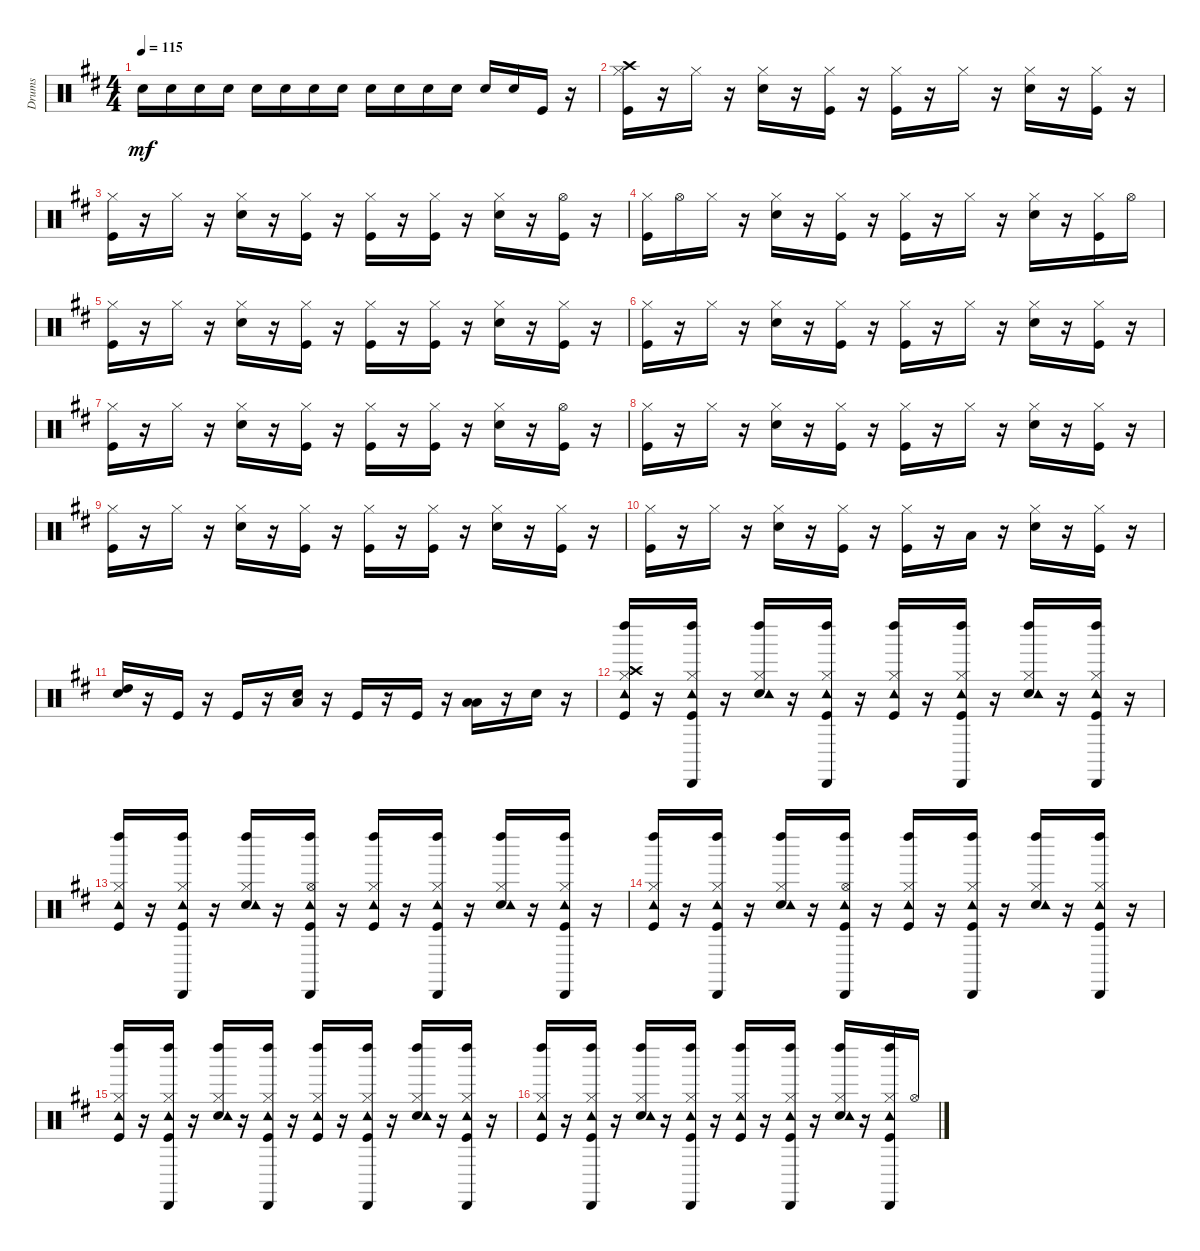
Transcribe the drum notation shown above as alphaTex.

\track ("Drums" "Drums") {instrument percussion}
\staff {score}
\articulation defaults
\ts (4 4)
\tempo 115
\clef neutral
\ks bminor "Snare (hit) 2".16{dy mf} "Snare (hit) 2".16 "Snare (hit) 2".16 "Snare (hit) 2".16 "Snare (hit) 2".16 "Snare (hit) 2".16 "Snare (hit) 2".16 "Snare (hit) 2".16 "Snare (hit) 2".16 "Snare (hit) 2".16 "Snare (hit) 2".16 "Snare (hit) 2".16 "Snare (hit) 2".16 "Snare (hit) 2".16 "Kick (hit)".16
r.16 |
("Kick (hit)" "Hi-Hat (closed)" "Crash high (hit)").16 r.16 "Hi-Hat (closed)".16 r.16 ("Snare (hit) 2" "Hi-Hat (closed)").16 r.16 ("Kick (hit)" "Hi-Hat (closed)").16 r.16 ("Kick (hit)" "Hi-Hat (closed)").16 r.16 "Hi-Hat (closed)".16 r.16 ("Snare (hit) 2" "Hi-Hat (closed)").16 r.16 ("Kick (hit)" "Hi-Hat (closed)").16 r.16 |
("Kick (hit)" "Hi-Hat (closed)").16 r.16 "Hi-Hat (closed)".16 r.16 ("Snare (hit) 2" "Hi-Hat (closed)").16 r.16 ("Kick (hit)" "Hi-Hat (closed)").16 r.16 ("Kick (hit)" "Hi-Hat (closed)").16 r.16 ("Kick (hit)" "Hi-Hat (closed)").16 r.16 ("Snare (hit) 2" "Hi-Hat (closed)").16 r.16 ("Kick (hit)" "Hi-Hat (open)").16 r.16 |
("Kick (hit)" "Hi-Hat (closed)").16 "Hi-Hat (open)".16 "Hi-Hat (closed)".16 r.16 ("Snare (hit) 2" "Hi-Hat (closed)").16 r.16 ("Kick (hit)" "Hi-Hat (closed)").16 r.16 ("Kick (hit)" "Hi-Hat (closed)").16 r.16 "Hi-Hat (closed)".16 r.16 ("Snare (hit) 2" "Hi-Hat (closed)").16 r.16 ("Kick (hit)" "Hi-Hat (closed)").16 "Hi-Hat (open)".16 |
("Kick (hit)" "Hi-Hat (closed)").16 r.16 "Hi-Hat (closed)".16 r.16 ("Snare (hit) 2" "Hi-Hat (closed)").16 r.16 ("Kick (hit)" "Hi-Hat (closed)").16 r.16 ("Kick (hit)" "Hi-Hat (closed)").16 r.16 ("Kick (hit)" "Hi-Hat (closed)").16 r.16 ("Snare (hit) 2" "Hi-Hat (closed)").16 r.16 ("Kick (hit)" "Hi-Hat (closed)").16 r.16 |
("Kick (hit)" "Hi-Hat (closed)").16 r.16 "Hi-Hat (closed)".16 r.16 ("Snare (hit) 2" "Hi-Hat (closed)").16 r.16 ("Kick (hit)" "Hi-Hat (closed)").16 r.16 ("Kick (hit)" "Hi-Hat (closed)").16 r.16 "Hi-Hat (closed)".16 r.16 ("Snare (hit) 2" "Hi-Hat (closed)").16 r.16 ("Kick (hit)" "Hi-Hat (closed)").16 r.16 |
("Kick (hit)" "Hi-Hat (closed)").16 r.16 "Hi-Hat (closed)".16 r.16 ("Snare (hit) 2" "Hi-Hat (closed)").16 r.16 ("Kick (hit)" "Hi-Hat (closed)").16 r.16 ("Kick (hit)" "Hi-Hat (closed)").16 r.16 ("Kick (hit)" "Hi-Hat (closed)").16 r.16 ("Snare (hit) 2" "Hi-Hat (closed)").16 r.16 ("Kick (hit)" "Hi-Hat (open)").16 r.16 |
("Kick (hit)" "Hi-Hat (closed)").16 r.16 "Hi-Hat (closed)".16 r.16 ("Snare (hit) 2" "Hi-Hat (closed)").16 r.16 ("Kick (hit)" "Hi-Hat (closed)").16 r.16 ("Kick (hit)" "Hi-Hat (closed)").16 r.16 "Hi-Hat (closed)".16 r.16 ("Snare (hit) 2" "Hi-Hat (closed)").16 r.16 ("Kick (hit)" "Hi-Hat (closed)").16 r.16 |
("Kick (hit)" "Hi-Hat (closed)").16 r.16 "Hi-Hat (closed)".16 r.16 ("Snare (hit) 2" "Hi-Hat (closed)").16 r.16 ("Kick (hit)" "Hi-Hat (closed)").16 r.16 ("Kick (hit)" "Hi-Hat (closed)").16 r.16 ("Kick (hit)" "Hi-Hat (closed)").16 r.16 ("Snare (hit) 2" "Hi-Hat (closed)").16 r.16 ("Kick (hit)" "Hi-Hat (closed)").16 r.16 |
("Kick (hit)" "Hi-Hat (closed)").16 r.16 "Hi-Hat (closed)".16 r.16 ("Snare (hit) 2" "Hi-Hat (closed)").16 r.16 ("Kick (hit)" "Hi-Hat (closed)").16 r.16 ("Kick (hit)" "Hi-Hat (closed)").16 r.16 "Low Floor Tom (hit)".16 r.16 ("Snare (hit) 2" "Hi-Hat (closed)").16 r.16 ("Kick (hit)" "Hi-Hat (closed)").16 r.16 |
("Snare (hit) 2" "High Tom (hit)").16 r.16 "Kick (hit)".16 r.16 "Kick (hit)".16 r.16 ("Snare (hit) 2" "Low Tom (hit)").16 r.16 "Kick (hit)".16 r.16 "Kick (hit)".16 r.16 ("Low Floor Tom (hit)" "Low Tom (hit)").16 r.16 "Snare (hit) 2".16 r.16 |
("Kick (hit)" "Hi-Hat (closed)" "Crash high (hit)" "Tambourine (hit)" "Left Maraca (hit)").16 r.16 ("Kick (hit)" "Hi-Hat (closed)" "Tambourine (hit)" "Cabasa (hit)" "Left Maraca (hit)").16 r.16 ("Snare (hit) 2" "Hi-Hat (closed)" "Tambourine (hit)" "Left Maraca (hit)").16 r.16 ("Kick (hit)" "Hi-Hat (closed)" "Tambourine (hit)" "Cabasa (hit)" "Left Maraca (hit)").16 r.16 ("Kick (hit)" "Hi-Hat (closed)" "Tambourine (hit)" "Left Maraca (hit)").16 r.16 ("Kick (hit)" "Hi-Hat (closed)" "Tambourine (hit)" "Cabasa (hit)" "Left Maraca (hit)").16 r.16 ("Snare (hit) 2" "Hi-Hat (closed)" "Tambourine (hit)" "Left Maraca (hit)").16 r.16 ("Kick (hit)" "Hi-Hat (closed)" "Tambourine (hit)" "Cabasa (hit)" "Left Maraca (hit)").16 r.16 |
("Kick (hit)" "Hi-Hat (closed)" "Tambourine (hit)" "Left Maraca (hit)").16 r.16 ("Kick (hit)" "Hi-Hat (closed)" "Tambourine (hit)" "Cabasa (hit)" "Left Maraca (hit)").16 r.16 ("Snare (hit) 2" "Hi-Hat (closed)" "Tambourine (hit)" "Left Maraca (hit)").16 r.16 ("Kick (hit)" "Hi-Hat (open)" "Tambourine (hit)" "Cabasa (hit)" "Left Maraca (hit)").16 r.16 ("Kick (hit)" "Hi-Hat (closed)" "Tambourine (hit)" "Left Maraca (hit)").16 r.16 ("Kick (hit)" "Hi-Hat (closed)" "Tambourine (hit)" "Cabasa (hit)" "Left Maraca (hit)").16 r.16 ("Snare (hit) 2" "Hi-Hat (closed)" "Tambourine (hit)" "Left Maraca (hit)").16 r.16 ("Kick (hit)" "Hi-Hat (closed)" "Tambourine (hit)" "Cabasa (hit)" "Left Maraca (hit)").16 r.16 |
("Kick (hit)" "Hi-Hat (closed)" "Tambourine (hit)" "Left Maraca (hit)").16 r.16 ("Kick (hit)" "Hi-Hat (closed)" "Tambourine (hit)" "Cabasa (hit)" "Left Maraca (hit)").16 r.16 ("Snare (hit) 2" "Hi-Hat (closed)" "Tambourine (hit)" "Left Maraca (hit)").16 r.16 ("Kick (hit)" "Hi-Hat (open)" "Tambourine (hit)" "Cabasa (hit)" "Left Maraca (hit)").16 r.16 ("Kick (hit)" "Hi-Hat (closed)" "Tambourine (hit)" "Left Maraca (hit)").16 r.16 ("Kick (hit)" "Hi-Hat (closed)" "Tambourine (hit)" "Cabasa (hit)" "Left Maraca (hit)").16 r.16 ("Snare (hit) 2" "Hi-Hat (closed)" "Tambourine (hit)" "Left Maraca (hit)").16 r.16 ("Kick (hit)" "Hi-Hat (closed)" "Tambourine (hit)" "Cabasa (hit)" "Left Maraca (hit)").16 r.16 |
("Kick (hit)" "Hi-Hat (closed)" "Tambourine (hit)" "Left Maraca (hit)").16 r.16 ("Kick (hit)" "Hi-Hat (closed)" "Tambourine (hit)" "Cabasa (hit)" "Left Maraca (hit)").16 r.16 ("Snare (hit) 2" "Hi-Hat (closed)" "Tambourine (hit)" "Left Maraca (hit)").16 r.16 ("Kick (hit)" "Hi-Hat (closed)" "Tambourine (hit)" "Cabasa (hit)" "Left Maraca (hit)").16 r.16 ("Kick (hit)" "Hi-Hat (closed)" "Tambourine (hit)" "Left Maraca (hit)").16 r.16 ("Kick (hit)" "Hi-Hat (closed)" "Tambourine (hit)" "Cabasa (hit)" "Left Maraca (hit)").16 r.16 ("Snare (hit) 2" "Hi-Hat (closed)" "Tambourine (hit)" "Left Maraca (hit)").16 r.16 ("Kick (hit)" "Hi-Hat (closed)" "Tambourine (hit)" "Cabasa (hit)" "Left Maraca (hit)").16 r.16 |
("Kick (hit)" "Hi-Hat (closed)" "Tambourine (hit)" "Left Maraca (hit)").16 r.16 ("Kick (hit)" "Hi-Hat (closed)" "Tambourine (hit)" "Cabasa (hit)" "Left Maraca (hit)").16 r.16 ("Snare (hit) 2" "Hi-Hat (closed)" "Tambourine (hit)" "Left Maraca (hit)").16 r.16 ("Kick (hit)" "Hi-Hat (closed)" "Tambourine (hit)" "Cabasa (hit)" "Left Maraca (hit)").16 r.16 ("Kick (hit)" "Hi-Hat (closed)" "Tambourine (hit)" "Left Maraca (hit)").16 r.16 ("Kick (hit)" "Hi-Hat (closed)" "Tambourine (hit)" "Cabasa (hit)" "Left Maraca (hit)").16 r.16 ("Snare (hit) 2" "Hi-Hat (closed)" "Tambourine (hit)" "Left Maraca (hit)").16 r.16 ("Kick (hit)" "Hi-Hat (closed)" "Tambourine (hit)" "Cabasa (hit)" "Left Maraca (hit)").16 "Hi-Hat (open)".16
